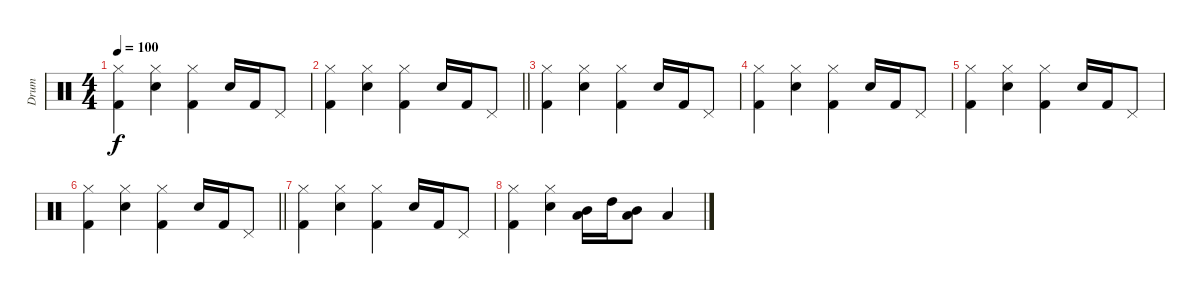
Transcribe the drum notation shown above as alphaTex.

\track ("Drum" "Drum") {instrument percussion}
\staff {score}
\articulation defaults
\ts (4 4)
\tempo 100
\clef neutral
\ks c
("Hi-Hat (closed)" "Kick (hit) 2").4{dy f} ("Hi-Hat (closed)" "Electric Snare (hit)").4 ("Hi-Hat (closed)" "Kick (hit) 2").4 "Electric Snare (hit)".16 "Kick (hit) 2".16 "Pedal Hi-Hat (hit)".8 |
\barLineRight lightlight
("Hi-Hat (closed)" "Kick (hit) 2").4 ("Hi-Hat (closed)" "Electric Snare (hit)").4 ("Hi-Hat (closed)" "Kick (hit) 2").4 "Electric Snare (hit)".16 "Kick (hit) 2".16 "Pedal Hi-Hat (hit)".8 |
("Hi-Hat (closed)" "Kick (hit) 2").4 ("Hi-Hat (closed)" "Electric Snare (hit)").4 ("Hi-Hat (closed)" "Kick (hit) 2").4 "Electric Snare (hit)".16 "Kick (hit) 2".16 "Pedal Hi-Hat (hit)".8 |
("Hi-Hat (closed)" "Kick (hit) 2").4 ("Hi-Hat (closed)" "Electric Snare (hit)").4 ("Hi-Hat (closed)" "Kick (hit) 2").4 "Electric Snare (hit)".16 "Kick (hit) 2".16 "Pedal Hi-Hat (hit)".8 |
("Hi-Hat (closed)" "Kick (hit) 2").4 ("Hi-Hat (closed)" "Electric Snare (hit)").4 ("Hi-Hat (closed)" "Kick (hit) 2").4 "Electric Snare (hit)".16 "Kick (hit) 2".16 "Pedal Hi-Hat (hit)".8 |
\barLineRight lightlight
("Hi-Hat (closed)" "Kick (hit) 2").4 ("Hi-Hat (closed)" "Electric Snare (hit)").4 ("Hi-Hat (closed)" "Kick (hit) 2").4 "Electric Snare (hit)".16 "Kick (hit) 2".16 "Pedal Hi-Hat (hit)".8 |
("Hi-Hat (closed)" "Kick (hit) 2").4 ("Hi-Hat (closed)" "Electric Snare (hit)").4 ("Hi-Hat (closed)" "Kick (hit) 2").4 "Electric Snare (hit)".16 "Kick (hit) 2".16 "Pedal Hi-Hat (hit)".8 |
("Hi-Hat (closed)" "Kick (hit) 2").4 ("Hi-Hat (closed)" "Snare (hit) 2").4 ("Mid Tom (hit)" "Low Tom (hit)").16 "High Tom (hit)".16 ("Mid Tom (hit)" "Low Tom (hit)").8 "Low Tom (hit)".4
